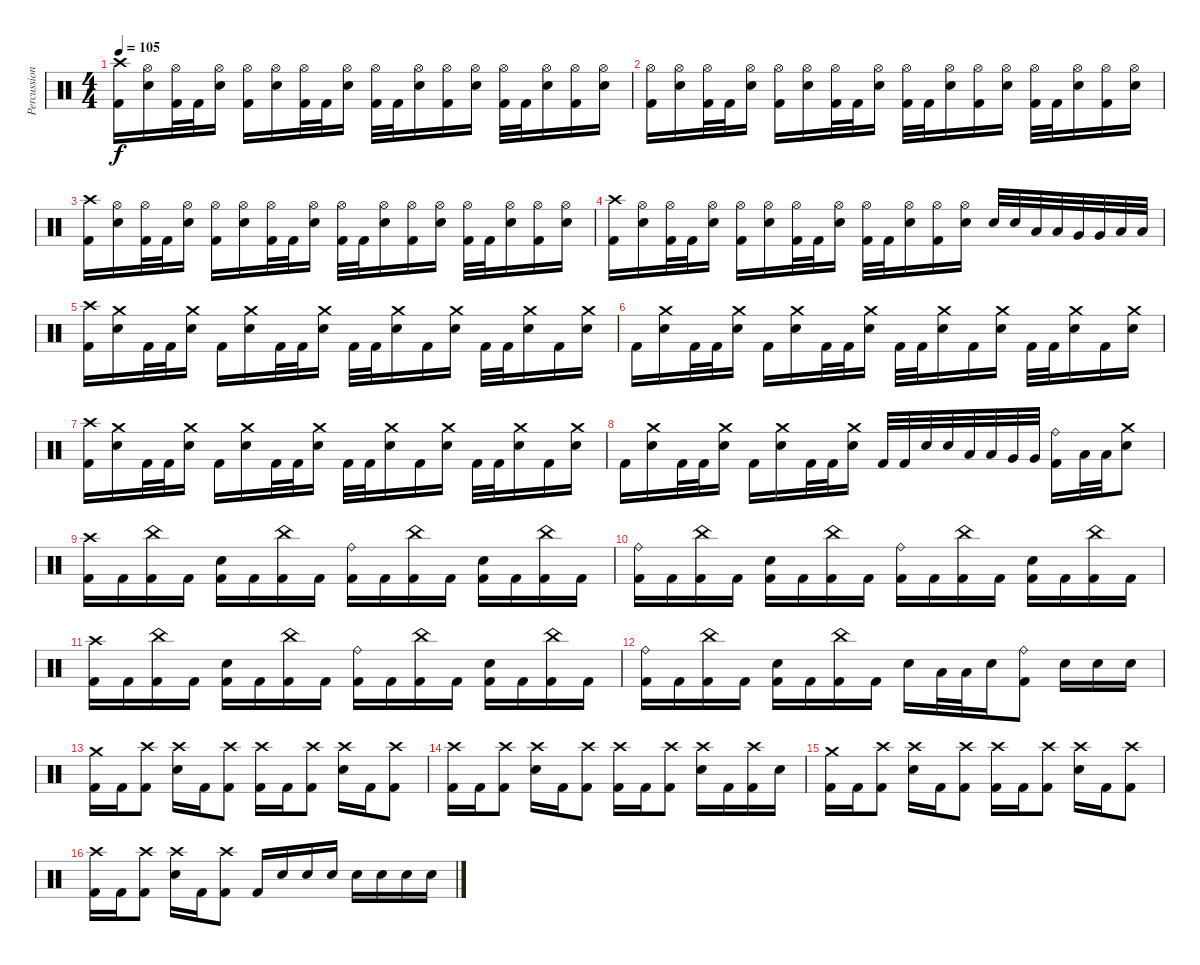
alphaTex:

\track ("Percussions" "Percussion") {instrument percussion}
\staff {score}
\articulation defaults
\ts (4 4)
\tempo 105
\clef neutral
\ks c
("Crash high (hit)" "Kick (hit) 2").16{dy f} ("Hi-Hat (open)" "Electric Snare (hit)").16 ("Hi-Hat (open)" "Kick (hit) 2").32 "Kick (hit) 2".32 ("Hi-Hat (open)" "Electric Snare (hit)").16 ("Hi-Hat (open)" "Kick (hit) 2").16 ("Hi-Hat (open)" "Electric Snare (hit)").16 ("Hi-Hat (open)" "Kick (hit) 2").32 "Kick (hit) 2".32 ("Hi-Hat (open)" "Electric Snare (hit)").16 ("Hi-Hat (open)" "Kick (hit) 2").32 "Kick (hit) 2".32 ("Hi-Hat (open)" "Electric Snare (hit)").16 ("Hi-Hat (open)" "Kick (hit) 2").16 ("Hi-Hat (open)" "Electric Snare (hit)").16 ("Hi-Hat (open)" "Kick (hit) 2").32 "Kick (hit) 2".32 ("Hi-Hat (open)" "Electric Snare (hit)").16 ("Hi-Hat (open)" "Kick (hit) 2").16 ("Hi-Hat (open)" "Electric Snare (hit)").16 |
("Hi-Hat (open)" "Kick (hit) 2").16 ("Hi-Hat (open)" "Electric Snare (hit)").16 ("Hi-Hat (open)" "Kick (hit) 2").32 "Kick (hit) 2".32 ("Hi-Hat (open)" "Electric Snare (hit)").16 ("Hi-Hat (open)" "Kick (hit) 2").16 ("Hi-Hat (open)" "Electric Snare (hit)").16 ("Hi-Hat (open)" "Kick (hit) 2").32 "Kick (hit) 2".32 ("Hi-Hat (open)" "Electric Snare (hit)").16 ("Hi-Hat (open)" "Kick (hit) 2").32 "Kick (hit) 2".32 ("Hi-Hat (open)" "Electric Snare (hit)").16 ("Hi-Hat (open)" "Kick (hit) 2").16 ("Hi-Hat (open)" "Electric Snare (hit)").16 ("Hi-Hat (open)" "Kick (hit) 2").32 "Kick (hit) 2".32 ("Hi-Hat (open)" "Electric Snare (hit)").16 ("Hi-Hat (open)" "Kick (hit) 2").16 ("Hi-Hat (open)" "Electric Snare (hit)").16 |
("Crash high (hit)" "Kick (hit) 2").16 ("Hi-Hat (open)" "Electric Snare (hit)").16 ("Hi-Hat (open)" "Kick (hit) 2").32 "Kick (hit) 2".32 ("Hi-Hat (open)" "Electric Snare (hit)").16 ("Hi-Hat (open)" "Kick (hit) 2").16 ("Hi-Hat (open)" "Electric Snare (hit)").16 ("Hi-Hat (open)" "Kick (hit) 2").32 "Kick (hit) 2".32 ("Hi-Hat (open)" "Electric Snare (hit)").16 ("Hi-Hat (open)" "Kick (hit) 2").32 "Kick (hit) 2".32 ("Hi-Hat (open)" "Electric Snare (hit)").16 ("Hi-Hat (open)" "Kick (hit) 2").16 ("Hi-Hat (open)" "Electric Snare (hit)").16 ("Hi-Hat (open)" "Kick (hit) 2").32 "Kick (hit) 2".32 ("Hi-Hat (open)" "Electric Snare (hit)").16 ("Hi-Hat (open)" "Kick (hit) 2").16 ("Hi-Hat (open)" "Electric Snare (hit)").16 |
("Crash high (hit)" "Kick (hit) 2").16 ("Hi-Hat (open)" "Electric Snare (hit)").16 ("Hi-Hat (open)" "Kick (hit) 2").32 "Kick (hit) 2".32 ("Hi-Hat (open)" "Electric Snare (hit)").16 ("Hi-Hat (open)" "Kick (hit) 2").16 ("Hi-Hat (open)" "Electric Snare (hit)").16 ("Hi-Hat (open)" "Kick (hit) 2").32 "Kick (hit) 2".32 ("Hi-Hat (open)" "Electric Snare (hit)").16 ("Hi-Hat (open)" "Kick (hit) 2").32 "Kick (hit) 2".32 ("Hi-Hat (open)" "Electric Snare (hit)").16 ("Hi-Hat (open)" "Kick (hit) 2").16 ("Hi-Hat (open)" "Electric Snare (hit)").16 "Electric Snare (hit)".32 "Electric Snare (hit)".32 "Low Tom (hit)".32 "Low Tom (hit)".32 "Very Low Tom (hit)".32 "Very Low Tom (hit)".32 "Low Floor Tom (hit)".32 "Low Floor Tom (hit)".32 |
("Crash high (hit)" "Kick (hit) 2").16 ("Crash medium (hit)" "Electric Snare (hit)").16 "Kick (hit) 2".32 "Kick (hit) 2".32 ("Crash medium (hit)" "Electric Snare (hit)").16 "Kick (hit) 2".16 ("Crash medium (hit)" "Electric Snare (hit)").16 "Kick (hit) 2".32 "Kick (hit) 2".32 ("Crash medium (hit)" "Electric Snare (hit)").16 "Kick (hit) 2".32 "Kick (hit) 2".32 ("Crash medium (hit)" "Electric Snare (hit)").16 "Kick (hit) 2".16 ("Crash medium (hit)" "Electric Snare (hit)").16 "Kick (hit) 2".32 "Kick (hit) 2".32 ("Crash medium (hit)" "Electric Snare (hit)").16 "Kick (hit) 2".16 ("Crash medium (hit)" "Electric Snare (hit)").16 |
"Kick (hit) 2".16 ("Crash medium (hit)" "Electric Snare (hit)").16 "Kick (hit) 2".32 "Kick (hit) 2".32 ("Crash medium (hit)" "Electric Snare (hit)").16 "Kick (hit) 2".16 ("Crash medium (hit)" "Electric Snare (hit)").16 "Kick (hit) 2".32 "Kick (hit) 2".32 ("Crash medium (hit)" "Electric Snare (hit)").16 "Kick (hit) 2".32 "Kick (hit) 2".32 ("Crash medium (hit)" "Electric Snare (hit)").16 "Kick (hit) 2".16 ("Crash medium (hit)" "Electric Snare (hit)").16 "Kick (hit) 2".32 "Kick (hit) 2".32 ("Crash medium (hit)" "Electric Snare (hit)").16 "Kick (hit) 2".16 ("Crash medium (hit)" "Electric Snare (hit)").16 |
("Crash high (hit)" "Kick (hit) 2").16 ("Crash medium (hit)" "Electric Snare (hit)").16 "Kick (hit) 2".32 "Kick (hit) 2".32 ("Crash medium (hit)" "Electric Snare (hit)").16 "Kick (hit) 2".16 ("Crash medium (hit)" "Electric Snare (hit)").16 "Kick (hit) 2".32 "Kick (hit) 2".32 ("Crash medium (hit)" "Electric Snare (hit)").16 "Kick (hit) 2".32 "Kick (hit) 2".32 ("Crash medium (hit)" "Electric Snare (hit)").16 "Kick (hit) 2".16 ("Crash medium (hit)" "Electric Snare (hit)").16 "Kick (hit) 2".32 "Kick (hit) 2".32 ("Crash medium (hit)" "Electric Snare (hit)").16 "Kick (hit) 2".16 ("Crash medium (hit)" "Electric Snare (hit)").16 |
"Kick (hit) 2".16 ("Crash medium (hit)" "Electric Snare (hit)").16 "Kick (hit) 2".32 "Kick (hit) 2".32 ("Crash medium (hit)" "Electric Snare (hit)").16 "Kick (hit) 2".16 ("Crash medium (hit)" "Electric Snare (hit)").16 "Kick (hit) 2".32 "Kick (hit) 2".32 ("Crash medium (hit)" "Electric Snare (hit)").16 "Kick (hit) 2".32 "Kick (hit) 2".32 "Electric Snare (hit)".32 "Electric Snare (hit)".32 "Low Tom (hit)".32 "Low Tom (hit)".32 "Very Low Tom (hit)".32 "Very Low Tom (hit)".32 ("Ride (bell)" "Kick (hit) 2").16 "Low Floor Tom (hit)".32 "Low Floor Tom (hit)".32 ("Crash medium (hit)" "Electric Snare (hit)").8 |
("Crash high (hit)" "Kick (hit) 2").16 "Kick (hit) 2".16 ("China (hit)" "Kick (hit) 2").16 "Kick (hit) 2".16 ("Electric Snare (hit)" "Kick (hit) 2").16 "Kick (hit) 2".16 ("China (hit)" "Kick (hit) 2").16 "Kick (hit) 2".16 ("Ride (bell)" "Kick (hit) 2").16 "Kick (hit) 2".16 ("China (hit)" "Kick (hit) 2").16 "Kick (hit) 2".16 ("Electric Snare (hit)" "Kick (hit) 2").16 "Kick (hit) 2".16 ("China (hit)" "Kick (hit) 2").16 "Kick (hit) 2".16 |
("Ride (bell)" "Kick (hit) 2").16 "Kick (hit) 2".16 ("China (hit)" "Kick (hit) 2").16 "Kick (hit) 2".16 ("Electric Snare (hit)" "Kick (hit) 2").16 "Kick (hit) 2".16 ("China (hit)" "Kick (hit) 2").16 "Kick (hit) 2".16 ("Ride (bell)" "Kick (hit) 2").16 "Kick (hit) 2".16 ("China (hit)" "Kick (hit) 2").16 "Kick (hit) 2".16 ("Electric Snare (hit)" "Kick (hit) 2").16 "Kick (hit) 2".16 ("China (hit)" "Kick (hit) 2").16 "Kick (hit) 2".16 |
("Crash high (hit)" "Kick (hit) 2").16 "Kick (hit) 2".16 ("China (hit)" "Kick (hit) 2").16 "Kick (hit) 2".16 ("Electric Snare (hit)" "Kick (hit) 2").16 "Kick (hit) 2".16 ("China (hit)" "Kick (hit) 2").16 "Kick (hit) 2".16 ("Ride (bell)" "Kick (hit) 2").16 "Kick (hit) 2".16 ("China (hit)" "Kick (hit) 2").16 "Kick (hit) 2".16 ("Electric Snare (hit)" "Kick (hit) 2").16 "Kick (hit) 2".16 ("China (hit)" "Kick (hit) 2").16 "Kick (hit) 2".16 |
("Ride (bell)" "Kick (hit) 2").16 "Kick (hit) 2".16 ("China (hit)" "Kick (hit) 2").16 "Kick (hit) 2".16 ("Electric Snare (hit)" "Kick (hit) 2").16 "Kick (hit) 2".16 ("China (hit)" "Kick (hit) 2").16 "Kick (hit) 2".16 "Electric Snare (hit)".16 "Low Tom (hit)".32 "Low Tom (hit)".32 "Electric Snare (hit)".16 ("Ride (bell)" "Kick (hit) 2").8 "Electric Snare (hit)".16 "Electric Snare (hit)".16 "Electric Snare (hit)".16 |
("Crash medium (hit)" "Kick (hit) 2").16 "Kick (hit) 2".16 ("Crash high (hit)" "Kick (hit) 2").8 ("Crash high (hit)" "Electric Snare (hit)").16 "Kick (hit) 2".16 ("Crash high (hit)" "Kick (hit) 2").8 ("Crash high (hit)" "Kick (hit) 2").16 "Kick (hit) 2".16 ("Crash high (hit)" "Kick (hit) 2").8 ("Crash high (hit)" "Electric Snare (hit)").16 "Kick (hit) 2".16 ("Crash high (hit)" "Kick (hit) 2").8 |
("Crash high (hit)" "Kick (hit) 2").16 "Kick (hit) 2".16 ("Crash high (hit)" "Kick (hit) 2").8 ("Crash high (hit)" "Electric Snare (hit)").16 "Kick (hit) 2".16 ("Crash high (hit)" "Kick (hit) 2").8 ("Crash high (hit)" "Kick (hit) 2").16 "Kick (hit) 2".16 ("Crash high (hit)" "Kick (hit) 2").8 ("Crash high (hit)" "Electric Snare (hit)").16 "Kick (hit) 2".16 ("Crash high (hit)" "Kick (hit) 2").16 "Electric Snare (hit)".16 |
("Crash medium (hit)" "Kick (hit) 2").16 "Kick (hit) 2".16 ("Crash high (hit)" "Kick (hit) 2").8 ("Crash high (hit)" "Electric Snare (hit)").16 "Kick (hit) 2".16 ("Crash high (hit)" "Kick (hit) 2").8 ("Crash high (hit)" "Kick (hit) 2").16 "Kick (hit) 2".16 ("Crash high (hit)" "Kick (hit) 2").8 ("Crash high (hit)" "Electric Snare (hit)").16 "Kick (hit) 2".16 ("Crash high (hit)" "Kick (hit) 2").8 |
("Crash high (hit)" "Kick (hit) 2").16 "Kick (hit) 2".16 ("Crash high (hit)" "Kick (hit) 2").8 ("Crash high (hit)" "Electric Snare (hit)").16 "Kick (hit) 2".16 ("Crash high (hit)" "Kick (hit) 2").8 "Kick (hit) 2".16 "Electric Snare (hit)".16 "Electric Snare (hit)".16 "Electric Snare (hit)".16 "Electric Snare (hit)".16 "Electric Snare (hit)".16 "Electric Snare (hit)".16 "Electric Snare (hit)".16
